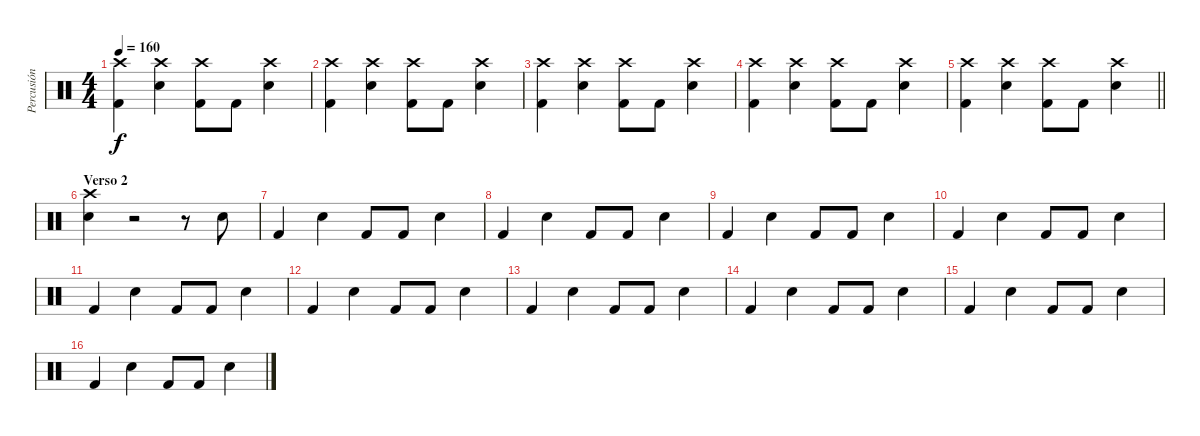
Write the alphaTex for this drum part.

\track ("Percusión" "Percusión") {instrument percussion}
\staff {score}
\articulation defaults
\ts (4 4)
\tempo 160
\clef neutral
\ks c
("Crash high (hit)" "Kick (hit) 2").4{dy f} ("Crash high (hit)" "Electric Snare (hit)").4 ("Crash high (hit)" "Kick (hit) 2").8 "Kick (hit) 2".8 ("Crash high (hit)" "Electric Snare (hit)").4 |
("Crash high (hit)" "Kick (hit) 2").4 ("Crash high (hit)" "Electric Snare (hit)").4 ("Crash high (hit)" "Kick (hit) 2").8 "Kick (hit) 2".8 ("Crash high (hit)" "Electric Snare (hit)").4 |
("Crash high (hit)" "Kick (hit) 2").4 ("Crash high (hit)" "Electric Snare (hit)").4 ("Crash high (hit)" "Kick (hit) 2").8 "Kick (hit) 2".8 ("Crash high (hit)" "Electric Snare (hit)").4 |
("Crash high (hit)" "Kick (hit) 2").4 ("Crash high (hit)" "Electric Snare (hit)").4 ("Crash high (hit)" "Kick (hit) 2").8 "Kick (hit) 2".8 ("Crash high (hit)" "Electric Snare (hit)").4 |
\barLineRight lightlight
("Crash high (hit)" "Kick (hit) 2").4 ("Crash high (hit)" "Electric Snare (hit)").4 ("Crash high (hit)" "Kick (hit) 2").8 "Kick (hit) 2".8 ("Crash high (hit)" "Electric Snare (hit)").4 |
\section ("" "Verso 2")
("Crash high (hit)" "Electric Snare (hit)").4 r.2 r.8 "Electric Snare (hit)".8 |
"Kick (hit) 2".4 "Electric Snare (hit)".4 "Kick (hit) 2".8 "Kick (hit) 2".8 "Electric Snare (hit)".4 |
"Kick (hit) 2".4 "Electric Snare (hit)".4 "Kick (hit) 2".8 "Kick (hit) 2".8 "Electric Snare (hit)".4 |
"Kick (hit) 2".4 "Electric Snare (hit)".4 "Kick (hit) 2".8 "Kick (hit) 2".8 "Electric Snare (hit)".4 |
"Kick (hit) 2".4 "Electric Snare (hit)".4 "Kick (hit) 2".8 "Kick (hit) 2".8 "Electric Snare (hit)".4 |
"Kick (hit) 2".4 "Electric Snare (hit)".4 "Kick (hit) 2".8 "Kick (hit) 2".8 "Electric Snare (hit)".4 |
"Kick (hit) 2".4 "Electric Snare (hit)".4 "Kick (hit) 2".8 "Kick (hit) 2".8 "Electric Snare (hit)".4 |
"Kick (hit) 2".4 "Electric Snare (hit)".4 "Kick (hit) 2".8 "Kick (hit) 2".8 "Electric Snare (hit)".4 |
"Kick (hit) 2".4 "Electric Snare (hit)".4 "Kick (hit) 2".8 "Kick (hit) 2".8 "Electric Snare (hit)".4 |
"Kick (hit) 2".4 "Electric Snare (hit)".4 "Kick (hit) 2".8 "Kick (hit) 2".8 "Electric Snare (hit)".4 |
"Kick (hit) 2".4 "Electric Snare (hit)".4 "Kick (hit) 2".8 "Kick (hit) 2".8 "Electric Snare (hit)".4
